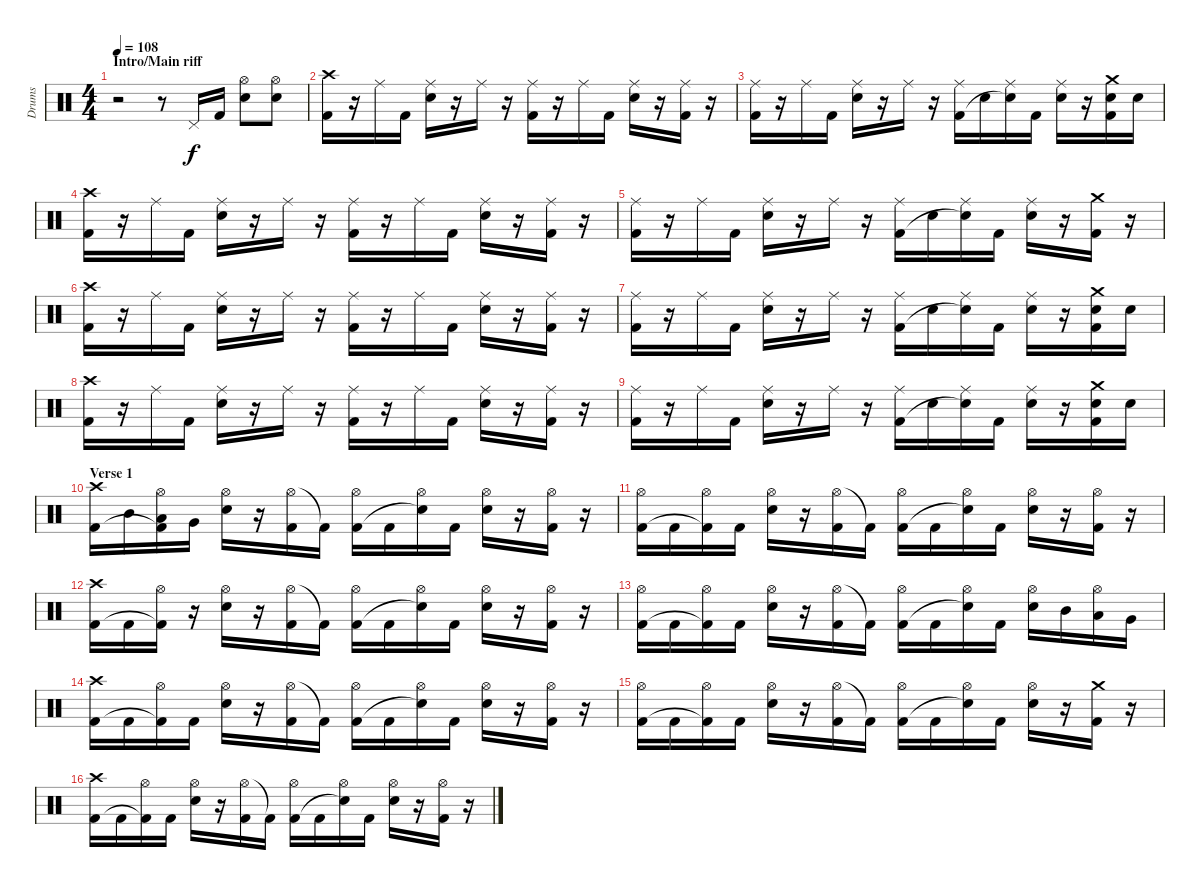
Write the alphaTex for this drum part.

\track ("Drums" "Drums") {instrument percussion}
\staff {score}
\articulation defaults
\ts (4 4)
\section ("" "Intro/Main riff")
\tempo 108
\clef neutral
\ks c
r.2{dy f} r.8 "Pedal Hi-Hat (hit)".16 "Kick (hit) 2".16 ("Electric Snare (hit)" "Hi-Hat (open)").8 ("Electric Snare (hit)" "Hi-Hat (open)").8 |
("Crash high (hit)" "Kick (hit) 2").16 r.16 "Ride (middle)".16 "Kick (hit) 2".16 ("Ride (middle)" "Electric Snare (hit)").16 r.16 "Ride (middle)".16 r.16 ("Ride (middle)" "Kick (hit) 2").16 r.16 "Ride (middle)".16 "Kick (hit) 2".16 ("Ride (middle)" "Electric Snare (hit)").16 r.16 ("Ride (middle)" "Kick (hit) 2").16 r.16 |
("Ride (middle)" "Kick (hit) 2").16 r.16 "Ride (middle)".16 "Kick (hit) 2".16 ("Ride (middle)" "Electric Snare (hit)").16 r.16 "Ride (middle)".16 r.16 ("Ride (middle)" "Kick (hit) 2").16 "Electric Snare (hit)".16 ("Ride (middle)" "Electric Snare (hit)"{t}).16 "Kick (hit) 2".16 ("Ride (middle)" "Electric Snare (hit)").16 r.16 ("Crash medium (hit)" "Electric Snare (hit)" "Kick (hit) 2").16 "Electric Snare (hit)".16 |
("Crash high (hit)" "Kick (hit) 2").16 r.16 "Ride (middle)".16 "Kick (hit) 2".16 ("Ride (middle)" "Electric Snare (hit)").16 r.16 "Ride (middle)".16 r.16 ("Ride (middle)" "Kick (hit) 2").16 r.16 "Ride (middle)".16 "Kick (hit) 2".16 ("Ride (middle)" "Electric Snare (hit)").16 r.16 ("Ride (middle)" "Kick (hit) 2").16 r.16 |
("Ride (middle)" "Kick (hit) 2").16 r.16 "Ride (middle)".16 "Kick (hit) 2".16 ("Ride (middle)" "Electric Snare (hit)").16 r.16 "Ride (middle)".16 r.16 ("Ride (middle)" "Kick (hit) 2").16 "Electric Snare (hit)".16 ("Ride (middle)" "Electric Snare (hit)"{t}).16 "Kick (hit) 2".16 ("Ride (middle)" "Electric Snare (hit)").16 r.16 ("Crash medium (hit)" "Kick (hit) 2").16 r.16 |
("Crash high (hit)" "Kick (hit) 2").16 r.16 "Ride (middle)".16 "Kick (hit) 2".16 ("Ride (middle)" "Electric Snare (hit)").16 r.16 "Ride (middle)".16 r.16 ("Ride (middle)" "Kick (hit) 2").16 r.16 "Ride (middle)".16 "Kick (hit) 2".16 ("Ride (middle)" "Electric Snare (hit)").16 r.16 ("Ride (middle)" "Kick (hit) 2").16 r.16 |
("Ride (middle)" "Kick (hit) 2").16 r.16 "Ride (middle)".16 "Kick (hit) 2".16 ("Ride (middle)" "Electric Snare (hit)").16 r.16 "Ride (middle)".16 r.16 ("Ride (middle)" "Kick (hit) 2").16 "Electric Snare (hit)".16 ("Ride (middle)" "Electric Snare (hit)"{t}).16 "Kick (hit) 2".16 ("Ride (middle)" "Electric Snare (hit)").16 r.16 ("Crash medium (hit)" "Electric Snare (hit)" "Kick (hit) 2").16 "Electric Snare (hit)".16 |
("Crash high (hit)" "Kick (hit) 2").16 r.16 "Ride (middle)".16 "Kick (hit) 2".16 ("Ride (middle)" "Electric Snare (hit)").16 r.16 "Ride (middle)".16 r.16 ("Ride (middle)" "Kick (hit) 2").16 r.16 "Ride (middle)".16 "Kick (hit) 2".16 ("Ride (middle)" "Electric Snare (hit)").16 r.16 ("Ride (middle)" "Kick (hit) 2").16 r.16 |
("Ride (middle)" "Kick (hit) 2").16 r.16 "Ride (middle)".16 "Kick (hit) 2".16 ("Ride (middle)" "Electric Snare (hit)").16 r.16 "Ride (middle)".16 r.16 ("Ride (middle)" "Kick (hit) 2").16 "Electric Snare (hit)".16 ("Ride (middle)" "Electric Snare (hit)"{t}).16 "Kick (hit) 2".16 ("Ride (middle)" "Electric Snare (hit)").16 r.16 ("Crash medium (hit)" "Electric Snare (hit)" "Kick (hit) 2").16 "Electric Snare (hit)".16 |
\section ("" "Verse 1")
("Crash high (hit)" "Kick (hit) 2").16 "Mid Tom (hit)".16 ("Hi-Hat (open)" "Kick (hit) 2"{t} "Low Tom (hit)").16 "Very Low Tom (hit)".16 ("Hi-Hat (open)" "Electric Snare (hit)").16 r.16 ("Hi-Hat (open)" "Kick (hit) 2").16 "Kick (hit) 2"{t}.16 ("Hi-Hat (open)" "Kick (hit) 2").16 "Kick (hit) 2".16 ("Hi-Hat (open)" "Electric Snare (hit)"{t}).16 "Kick (hit) 2".16 ("Hi-Hat (open)" "Electric Snare (hit)").16 r.16 ("Hi-Hat (open)" "Kick (hit) 2").16 r.16 |
("Hi-Hat (open)" "Kick (hit) 2").16 "Kick (hit) 2".16 ("Hi-Hat (open)" "Kick (hit) 2"{t}).16 "Kick (hit) 2".16 ("Hi-Hat (open)" "Electric Snare (hit)").16 r.16 ("Hi-Hat (open)" "Kick (hit) 2").16 "Kick (hit) 2"{t}.16 ("Hi-Hat (open)" "Kick (hit) 2").16 "Kick (hit) 2".16 ("Hi-Hat (open)" "Electric Snare (hit)"{t}).16 "Kick (hit) 2".16 ("Hi-Hat (open)" "Electric Snare (hit)").16 r.16 ("Hi-Hat (open)" "Kick (hit) 2").16 r.16 |
("Crash high (hit)" "Kick (hit) 2").16 "Kick (hit) 2".16 ("Hi-Hat (open)" "Kick (hit) 2"{t}).16 r.16 ("Hi-Hat (open)" "Electric Snare (hit)").16 r.16 ("Hi-Hat (open)" "Kick (hit) 2").16 "Kick (hit) 2"{t}.16 ("Hi-Hat (open)" "Kick (hit) 2").16 "Kick (hit) 2".16 ("Hi-Hat (open)" "Electric Snare (hit)"{t}).16 "Kick (hit) 2".16 ("Hi-Hat (open)" "Electric Snare (hit)").16 r.16 ("Hi-Hat (open)" "Kick (hit) 2").16 r.16 |
("Hi-Hat (open)" "Kick (hit) 2").16 "Kick (hit) 2".16 ("Hi-Hat (open)" "Kick (hit) 2"{t}).16 "Kick (hit) 2".16 ("Hi-Hat (open)" "Electric Snare (hit)").16 r.16 ("Hi-Hat (open)" "Kick (hit) 2").16 "Kick (hit) 2"{t}.16 ("Hi-Hat (open)" "Kick (hit) 2").16 "Kick (hit) 2".16 ("Hi-Hat (open)" "Electric Snare (hit)"{t}).16 "Kick (hit) 2".16 ("Hi-Hat (open)" "Electric Snare (hit)").16 "Mid Tom (hit)".16 ("Hi-Hat (open)" "Low Tom (hit)").16 "Very Low Tom (hit)".16 |
("Crash high (hit)" "Kick (hit) 2").16 "Kick (hit) 2".16 ("Hi-Hat (open)" "Kick (hit) 2"{t}).16 "Kick (hit) 2".16 ("Hi-Hat (open)" "Electric Snare (hit)").16 r.16 ("Hi-Hat (open)" "Kick (hit) 2").16 "Kick (hit) 2"{t}.16 ("Hi-Hat (open)" "Kick (hit) 2").16 "Kick (hit) 2".16 ("Hi-Hat (open)" "Electric Snare (hit)"{t}).16 "Kick (hit) 2".16 ("Hi-Hat (open)" "Electric Snare (hit)").16 r.16 ("Hi-Hat (open)" "Kick (hit) 2").16 r.16 |
("Hi-Hat (open)" "Kick (hit) 2").16 "Kick (hit) 2".16 ("Hi-Hat (open)" "Kick (hit) 2"{t}).16 "Kick (hit) 2".16 ("Hi-Hat (open)" "Electric Snare (hit)").16 r.16 ("Hi-Hat (open)" "Kick (hit) 2").16 "Kick (hit) 2"{t}.16 ("Hi-Hat (open)" "Kick (hit) 2").16 "Kick (hit) 2".16 ("Hi-Hat (open)" "Electric Snare (hit)"{t}).16 "Kick (hit) 2".16 ("Hi-Hat (open)" "Electric Snare (hit)").16 r.16 ("Crash medium (hit)" "Kick (hit) 2").16 r.16 |
("Crash high (hit)" "Kick (hit) 2").16 "Kick (hit) 2".16 ("Hi-Hat (open)" "Kick (hit) 2"{t}).16 "Kick (hit) 2".16 ("Hi-Hat (open)" "Electric Snare (hit)").16 r.16 ("Hi-Hat (open)" "Kick (hit) 2").16 "Kick (hit) 2"{t}.16 ("Hi-Hat (open)" "Kick (hit) 2").16 "Kick (hit) 2".16 ("Hi-Hat (open)" "Electric Snare (hit)"{t}).16 "Kick (hit) 2".16 ("Hi-Hat (open)" "Electric Snare (hit)").16 r.16 ("Hi-Hat (open)" "Kick (hit) 2").16 r.16
